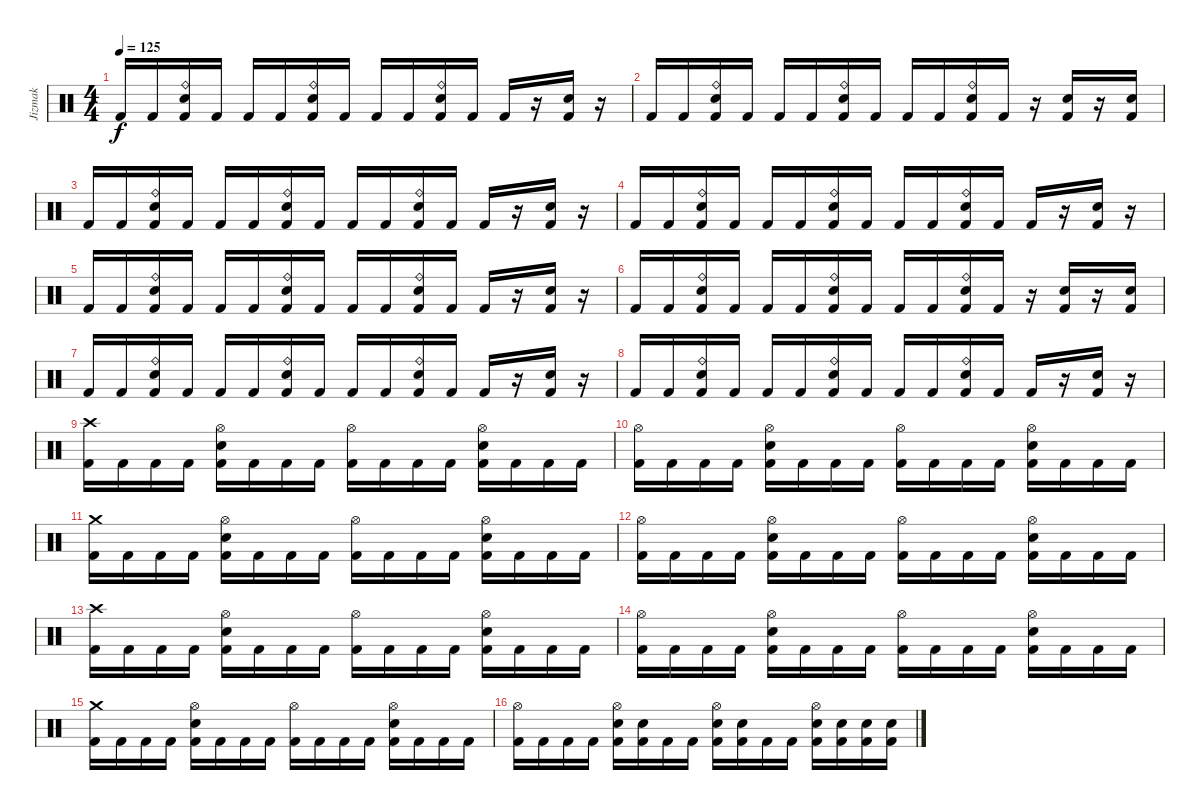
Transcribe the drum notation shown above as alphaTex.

\track ("Jizmak" "Jizmak") {instrument percussion}
\staff {score}
\articulation defaults
\ts (4 4)
\tempo 125
\clef neutral
\ks c "Kick (hit) 2".16{dy f} "Kick (hit) 2".16
("Ride (bell)" "Snare (hit) 2" "Kick (hit) 2").16 "Kick (hit) 2".16 "Kick (hit) 2".16 "Kick (hit) 2".16 ("Ride (bell)" "Snare (hit) 2" "Kick (hit) 2").16 "Kick (hit) 2".16 "Kick (hit) 2".16 "Kick (hit) 2".16 ("Ride (bell)" "Snare (hit) 2" "Kick (hit) 2").16 "Kick (hit) 2".16 "Kick (hit) 2".16 r.16 ("Snare (hit) 2" "Kick (hit) 2").16 r.16 |
"Kick (hit) 2".16 "Kick (hit) 2".16 ("Ride (bell)" "Snare (hit) 2" "Kick (hit) 2").16 "Kick (hit) 2".16 "Kick (hit) 2".16 "Kick (hit) 2".16 ("Ride (bell)" "Snare (hit) 2" "Kick (hit) 2").16 "Kick (hit) 2".16 "Kick (hit) 2".16 "Kick (hit) 2".16 ("Ride (bell)" "Snare (hit) 2" "Kick (hit) 2").16 "Kick (hit) 2".16 r.16 ("Snare (hit) 2" "Kick (hit) 2").16 r.16 ("Snare (hit) 2" "Kick (hit) 2").16 |
"Kick (hit) 2".16 "Kick (hit) 2".16 ("Ride (bell)" "Snare (hit) 2" "Kick (hit) 2").16 "Kick (hit) 2".16 "Kick (hit) 2".16 "Kick (hit) 2".16 ("Ride (bell)" "Snare (hit) 2" "Kick (hit) 2").16 "Kick (hit) 2".16 "Kick (hit) 2".16 "Kick (hit) 2".16 ("Ride (bell)" "Snare (hit) 2" "Kick (hit) 2").16 "Kick (hit) 2".16 "Kick (hit) 2".16 r.16 ("Snare (hit) 2" "Kick (hit) 2").16 r.16 |
"Kick (hit) 2".16 "Kick (hit) 2".16 ("Ride (bell)" "Snare (hit) 2" "Kick (hit) 2").16 "Kick (hit) 2".16 "Kick (hit) 2".16 "Kick (hit) 2".16 ("Ride (bell)" "Snare (hit) 2" "Kick (hit) 2").16 "Kick (hit) 2".16 "Kick (hit) 2".16 "Kick (hit) 2".16 ("Ride (bell)" "Snare (hit) 2" "Kick (hit) 2").16 "Kick (hit) 2".16 "Kick (hit) 2".16 r.16 ("Snare (hit) 2" "Kick (hit) 2").16 r.16 |
"Kick (hit) 2".16 "Kick (hit) 2".16 ("Ride (bell)" "Snare (hit) 2" "Kick (hit) 2").16 "Kick (hit) 2".16 "Kick (hit) 2".16 "Kick (hit) 2".16 ("Ride (bell)" "Snare (hit) 2" "Kick (hit) 2").16 "Kick (hit) 2".16 "Kick (hit) 2".16 "Kick (hit) 2".16 ("Ride (bell)" "Snare (hit) 2" "Kick (hit) 2").16 "Kick (hit) 2".16 "Kick (hit) 2".16 r.16 ("Snare (hit) 2" "Kick (hit) 2").16 r.16 |
"Kick (hit) 2".16 "Kick (hit) 2".16 ("Ride (bell)" "Snare (hit) 2" "Kick (hit) 2").16 "Kick (hit) 2".16 "Kick (hit) 2".16 "Kick (hit) 2".16 ("Ride (bell)" "Snare (hit) 2" "Kick (hit) 2").16 "Kick (hit) 2".16 "Kick (hit) 2".16 "Kick (hit) 2".16 ("Ride (bell)" "Snare (hit) 2" "Kick (hit) 2").16 "Kick (hit) 2".16 r.16 ("Snare (hit) 2" "Kick (hit) 2").16 r.16 ("Snare (hit) 2" "Kick (hit) 2").16 |
"Kick (hit) 2".16 "Kick (hit) 2".16 ("Ride (bell)" "Snare (hit) 2" "Kick (hit) 2").16 "Kick (hit) 2".16 "Kick (hit) 2".16 "Kick (hit) 2".16 ("Ride (bell)" "Snare (hit) 2" "Kick (hit) 2").16 "Kick (hit) 2".16 "Kick (hit) 2".16 "Kick (hit) 2".16 ("Ride (bell)" "Snare (hit) 2" "Kick (hit) 2").16 "Kick (hit) 2".16 "Kick (hit) 2".16 r.16 ("Snare (hit) 2" "Kick (hit) 2").16 r.16 |
"Kick (hit) 2".16 "Kick (hit) 2".16 ("Ride (bell)" "Snare (hit) 2" "Kick (hit) 2").16 "Kick (hit) 2".16 "Kick (hit) 2".16 "Kick (hit) 2".16 ("Ride (bell)" "Snare (hit) 2" "Kick (hit) 2").16 "Kick (hit) 2".16 "Kick (hit) 2".16 "Kick (hit) 2".16 ("Ride (bell)" "Snare (hit) 2" "Kick (hit) 2").16 "Kick (hit) 2".16 "Kick (hit) 2".16 r.16 ("Snare (hit) 2" "Kick (hit) 2").16 r.16 |
("Crash high (hit)" "Kick (hit) 2").16 "Kick (hit) 2".16 "Kick (hit) 2".16 "Kick (hit) 2".16 ("Hi-Hat (open)" "Snare (hit) 2" "Kick (hit) 2").16 "Kick (hit) 2".16 "Kick (hit) 2".16 "Kick (hit) 2".16 ("Hi-Hat (open)" "Kick (hit) 2").16 "Kick (hit) 2".16 "Kick (hit) 2".16 "Kick (hit) 2".16 ("Hi-Hat (open)" "Snare (hit) 2" "Kick (hit) 2").16 "Kick (hit) 2".16 "Kick (hit) 2".16 "Kick (hit) 2".16 |
("Hi-Hat (open)" "Kick (hit) 2").16 "Kick (hit) 2".16 "Kick (hit) 2".16 "Kick (hit) 2".16 ("Hi-Hat (open)" "Snare (hit) 2" "Kick (hit) 2").16 "Kick (hit) 2".16 "Kick (hit) 2".16 "Kick (hit) 2".16 ("Hi-Hat (open)" "Kick (hit) 2").16 "Kick (hit) 2".16 "Kick (hit) 2".16 "Kick (hit) 2".16 ("Hi-Hat (open)" "Snare (hit) 2" "Kick (hit) 2").16 "Kick (hit) 2".16 "Kick (hit) 2".16 "Kick (hit) 2".16 |
("Crash medium (hit)" "Kick (hit) 2").16 "Kick (hit) 2".16 "Kick (hit) 2".16 "Kick (hit) 2".16 ("Hi-Hat (open)" "Snare (hit) 2" "Kick (hit) 2").16 "Kick (hit) 2".16 "Kick (hit) 2".16 "Kick (hit) 2".16 ("Hi-Hat (open)" "Kick (hit) 2").16 "Kick (hit) 2".16 "Kick (hit) 2".16 "Kick (hit) 2".16 ("Hi-Hat (open)" "Snare (hit) 2" "Kick (hit) 2").16 "Kick (hit) 2".16 "Kick (hit) 2".16 "Kick (hit) 2".16 |
("Hi-Hat (open)" "Kick (hit) 2").16 "Kick (hit) 2".16 "Kick (hit) 2".16 "Kick (hit) 2".16 ("Hi-Hat (open)" "Snare (hit) 2" "Kick (hit) 2").16 "Kick (hit) 2".16 "Kick (hit) 2".16 "Kick (hit) 2".16 ("Hi-Hat (open)" "Kick (hit) 2").16 "Kick (hit) 2".16 "Kick (hit) 2".16 "Kick (hit) 2".16 ("Hi-Hat (open)" "Snare (hit) 2" "Kick (hit) 2").16 "Kick (hit) 2".16 "Kick (hit) 2".16 "Kick (hit) 2".16 |
("Crash high (hit)" "Kick (hit) 2").16 "Kick (hit) 2".16 "Kick (hit) 2".16 "Kick (hit) 2".16 ("Hi-Hat (open)" "Snare (hit) 2" "Kick (hit) 2").16 "Kick (hit) 2".16 "Kick (hit) 2".16 "Kick (hit) 2".16 ("Hi-Hat (open)" "Kick (hit) 2").16 "Kick (hit) 2".16 "Kick (hit) 2".16 "Kick (hit) 2".16 ("Hi-Hat (open)" "Snare (hit) 2" "Kick (hit) 2").16 "Kick (hit) 2".16 "Kick (hit) 2".16 "Kick (hit) 2".16 |
("Hi-Hat (open)" "Kick (hit) 2").16 "Kick (hit) 2".16 "Kick (hit) 2".16 "Kick (hit) 2".16 ("Hi-Hat (open)" "Snare (hit) 2" "Kick (hit) 2").16 "Kick (hit) 2".16 "Kick (hit) 2".16 "Kick (hit) 2".16 ("Hi-Hat (open)" "Kick (hit) 2").16 "Kick (hit) 2".16 "Kick (hit) 2".16 "Kick (hit) 2".16 ("Hi-Hat (open)" "Snare (hit) 2" "Kick (hit) 2").16 "Kick (hit) 2".16 "Kick (hit) 2".16 "Kick (hit) 2".16 |
("Crash medium (hit)" "Kick (hit) 2").16 "Kick (hit) 2".16 "Kick (hit) 2".16 "Kick (hit) 2".16 ("Hi-Hat (open)" "Snare (hit) 2" "Kick (hit) 2").16 "Kick (hit) 2".16 "Kick (hit) 2".16 "Kick (hit) 2".16 ("Hi-Hat (open)" "Kick (hit) 2").16 "Kick (hit) 2".16 "Kick (hit) 2".16 "Kick (hit) 2".16 ("Hi-Hat (open)" "Snare (hit) 2" "Kick (hit) 2").16 "Kick (hit) 2".16 "Kick (hit) 2".16 "Kick (hit) 2".16 |
("Hi-Hat (open)" "Kick (hit) 2").16 "Kick (hit) 2".16 "Kick (hit) 2".16 "Kick (hit) 2".16 ("Hi-Hat (open)" "Snare (hit) 2" "Kick (hit) 2").16 ("Snare (hit) 2" "Kick (hit) 2").16 "Kick (hit) 2".16 "Kick (hit) 2".16 ("Hi-Hat (open)" "Snare (hit) 2" "Kick (hit) 2").16 ("Snare (hit) 2" "Kick (hit) 2").16 "Kick (hit) 2".16 "Kick (hit) 2".16 ("Hi-Hat (open)" "Snare (hit) 2" "Kick (hit) 2").16 ("Snare (hit) 2" "Kick (hit) 2").16 ("Snare (hit) 2" "Kick (hit) 2").16 ("Snare (hit) 2" "Kick (hit) 2").16
